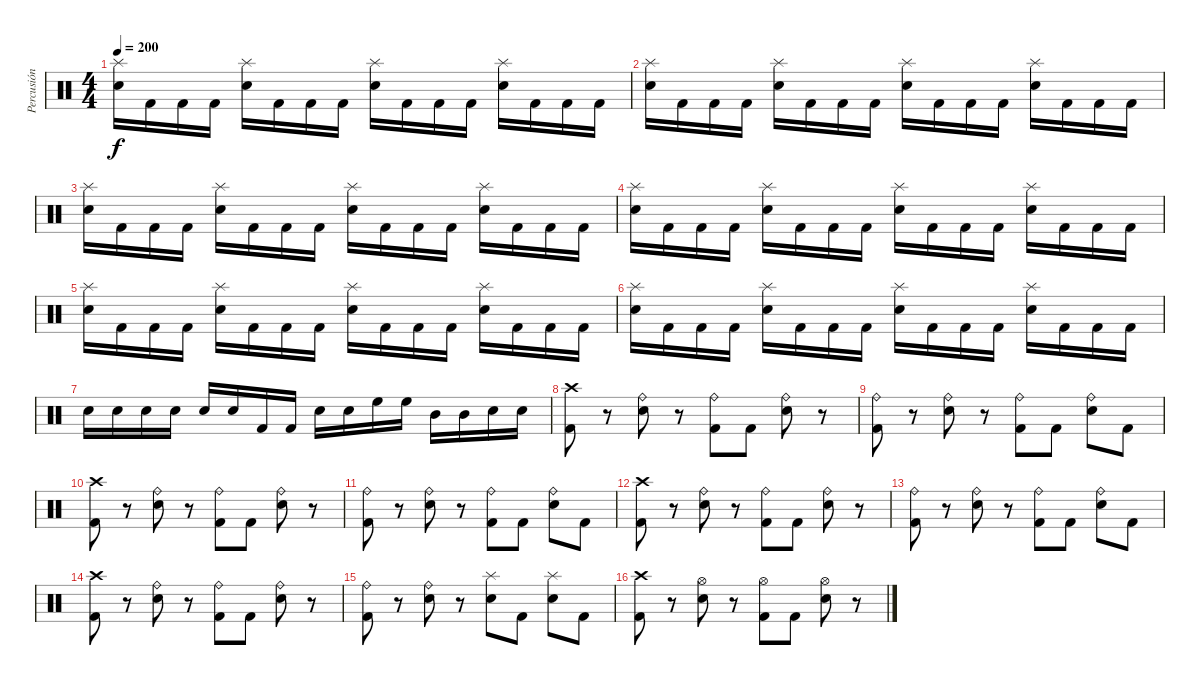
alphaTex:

\track ("Percusión" "Percusión") {instrument percussion}
\staff {score}
\articulation defaults
\ts (4 4)
\tempo 200
\clef neutral
\ks c
("Splash (hit)" "Electric Snare (hit)").16{dy f} "Kick (hit) 2".16 "Kick (hit) 2".16 "Kick (hit) 2".16 ("Splash (hit)" "Electric Snare (hit)").16 "Kick (hit) 2".16 "Kick (hit) 2".16 "Kick (hit) 2".16 ("Splash (hit)" "Electric Snare (hit)").16 "Kick (hit) 2".16 "Kick (hit) 2".16 "Kick (hit) 2".16 ("Splash (hit)" "Electric Snare (hit)").16 "Kick (hit) 2".16 "Kick (hit) 2".16 "Kick (hit) 2".16 |
("Splash (hit)" "Electric Snare (hit)").16 "Kick (hit) 2".16 "Kick (hit) 2".16 "Kick (hit) 2".16 ("Splash (hit)" "Electric Snare (hit)").16 "Kick (hit) 2".16 "Kick (hit) 2".16 "Kick (hit) 2".16 ("Splash (hit)" "Electric Snare (hit)").16 "Kick (hit) 2".16 "Kick (hit) 2".16 "Kick (hit) 2".16 ("Splash (hit)" "Electric Snare (hit)").16 "Kick (hit) 2".16 "Kick (hit) 2".16 "Kick (hit) 2".16 |
("Splash (hit)" "Electric Snare (hit)").16 "Kick (hit) 2".16 "Kick (hit) 2".16 "Kick (hit) 2".16 ("Splash (hit)" "Electric Snare (hit)").16 "Kick (hit) 2".16 "Kick (hit) 2".16 "Kick (hit) 2".16 ("Splash (hit)" "Electric Snare (hit)").16 "Kick (hit) 2".16 "Kick (hit) 2".16 "Kick (hit) 2".16 ("Splash (hit)" "Electric Snare (hit)").16 "Kick (hit) 2".16 "Kick (hit) 2".16 "Kick (hit) 2".16 |
("Splash (hit)" "Electric Snare (hit)").16 "Kick (hit) 2".16 "Kick (hit) 2".16 "Kick (hit) 2".16 ("Splash (hit)" "Electric Snare (hit)").16 "Kick (hit) 2".16 "Kick (hit) 2".16 "Kick (hit) 2".16 ("Splash (hit)" "Electric Snare (hit)").16 "Kick (hit) 2".16 "Kick (hit) 2".16 "Kick (hit) 2".16 ("Splash (hit)" "Electric Snare (hit)").16 "Kick (hit) 2".16 "Kick (hit) 2".16 "Kick (hit) 2".16 |
("Splash (hit)" "Electric Snare (hit)").16 "Kick (hit) 2".16 "Kick (hit) 2".16 "Kick (hit) 2".16 ("Splash (hit)" "Electric Snare (hit)").16 "Kick (hit) 2".16 "Kick (hit) 2".16 "Kick (hit) 2".16 ("Splash (hit)" "Electric Snare (hit)").16 "Kick (hit) 2".16 "Kick (hit) 2".16 "Kick (hit) 2".16 ("Splash (hit)" "Electric Snare (hit)").16 "Kick (hit) 2".16 "Kick (hit) 2".16 "Kick (hit) 2".16 |
("Splash (hit)" "Electric Snare (hit)").16 "Kick (hit) 2".16 "Kick (hit) 2".16 "Kick (hit) 2".16 ("Splash (hit)" "Electric Snare (hit)").16 "Kick (hit) 2".16 "Kick (hit) 2".16 "Kick (hit) 2".16 ("Splash (hit)" "Electric Snare (hit)").16 "Kick (hit) 2".16 "Kick (hit) 2".16 "Kick (hit) 2".16 ("Splash (hit)" "Electric Snare (hit)").16 "Kick (hit) 2".16 "Kick (hit) 2".16 "Kick (hit) 2".16 |
"Electric Snare (hit)".16 "Electric Snare (hit)".16 "Electric Snare (hit)".16 "Electric Snare (hit)".16 "Electric Snare (hit)".16 "Electric Snare (hit)".16 "Kick (hit) 2".16 "Kick (hit) 2".16 "Electric Snare (hit)".16 "Electric Snare (hit)".16 "High Floor Tom (hit)".16 "High Floor Tom (hit)".16 "Mid Tom (hit)".16 "Mid Tom (hit)".16 "Electric Snare (hit)".16 "Electric Snare (hit)".16 |
("Crash high (hit)" "Kick (hit) 2").8 r.8 ("Ride (bell)" "Electric Snare (hit)").8 r.8 ("Ride (bell)" "Kick (hit) 2").8 "Kick (hit) 2".8 ("Ride (bell)" "Electric Snare (hit)").8 r.8 |
("Ride (bell)" "Kick (hit) 2").8 r.8 ("Ride (bell)" "Electric Snare (hit)").8 r.8 ("Ride (bell)" "Kick (hit) 2").8 "Kick (hit) 2".8 ("Ride (bell)" "Electric Snare (hit)").8 "Kick (hit) 2".8 |
("Crash high (hit)" "Kick (hit) 2").8 r.8 ("Ride (bell)" "Electric Snare (hit)").8 r.8 ("Ride (bell)" "Kick (hit) 2").8 "Kick (hit) 2".8 ("Ride (bell)" "Electric Snare (hit)").8 r.8 |
("Ride (bell)" "Kick (hit) 2").8 r.8 ("Ride (bell)" "Electric Snare (hit)").8 r.8 ("Ride (bell)" "Kick (hit) 2").8 "Kick (hit) 2".8 ("Ride (bell)" "Electric Snare (hit)").8 "Kick (hit) 2".8 |
("Crash high (hit)" "Kick (hit) 2").8 r.8 ("Ride (bell)" "Electric Snare (hit)").8 r.8 ("Ride (bell)" "Kick (hit) 2").8 "Kick (hit) 2".8 ("Ride (bell)" "Electric Snare (hit)").8 r.8 |
("Ride (bell)" "Kick (hit) 2").8 r.8 ("Ride (bell)" "Electric Snare (hit)").8 r.8 ("Ride (bell)" "Kick (hit) 2").8 "Kick (hit) 2".8 ("Ride (bell)" "Electric Snare (hit)").8 "Kick (hit) 2".8 |
("Crash high (hit)" "Kick (hit) 2").8 r.8 ("Ride (bell)" "Electric Snare (hit)").8 r.8 ("Ride (bell)" "Kick (hit) 2").8 "Kick (hit) 2".8 ("Ride (bell)" "Electric Snare (hit)").8 r.8 |
("Ride (bell)" "Kick (hit) 2").8 r.8 ("Ride (bell)" "Electric Snare (hit)").8 r.8 ("Splash (hit)" "Electric Snare (hit)").8 "Kick (hit) 2".8 ("Splash (hit)" "Electric Snare (hit)").8 "Kick (hit) 2".8 |
("Crash high (hit)" "Kick (hit) 2").8 r.8 ("Hi-Hat (open)" "Electric Snare (hit)").8 r.8 ("Hi-Hat (open)" "Kick (hit) 2").8 "Kick (hit) 2".8 ("Hi-Hat (open)" "Electric Snare (hit)").8 r.8
